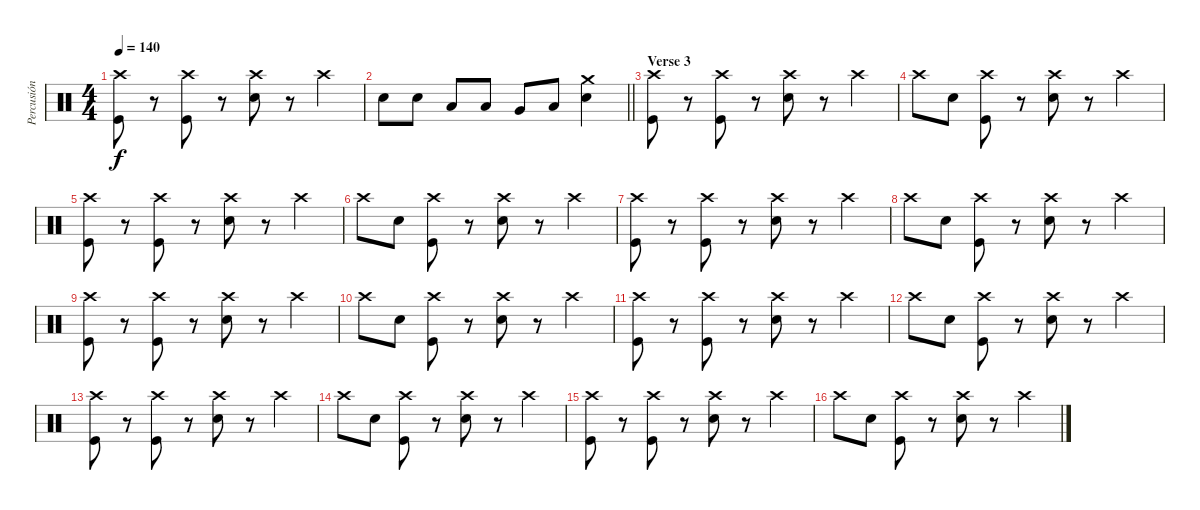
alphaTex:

\track ("Percusión" "Percusión") {instrument percussion}
\staff {score}
\articulation defaults
\ts (4 4)
\tempo 140
\clef neutral
\ks c
("Crash high (hit)" "Kick (hit)").8{dy f} r.8 ("Crash high (hit)" "Kick (hit)").8 r.8 ("Crash high (hit)" "Snare (hit) 2").8 r.8 "Crash high (hit)".4 |
\barLineRight lightlight "Snare (hit) 2".8 "Snare (hit) 2".8 "Low Floor Tom (hit)".8 "Low Floor Tom (hit)".8 "Very Low Tom (hit)".8 "Low Tom (hit)".8
("Crash medium (hit)" "Snare (hit) 2").4 |
\section ("" "Verse 3")
("Crash high (hit)" "Kick (hit)").8 r.8 ("Crash high (hit)" "Kick (hit)").8 r.8 ("Crash high (hit)" "Snare (hit) 2").8 r.8 "Crash high (hit)".4 |
"Crash high (hit)".8 "Snare (hit) 2".8 ("Crash high (hit)" "Kick (hit)").8 r.8 ("Crash high (hit)" "Snare (hit) 2").8 r.8 "Crash high (hit)".4 |
("Crash high (hit)" "Kick (hit)").8 r.8 ("Crash high (hit)" "Kick (hit)").8 r.8 ("Crash high (hit)" "Snare (hit) 2").8 r.8 "Crash high (hit)".4 |
"Crash high (hit)".8 "Snare (hit) 2".8 ("Crash high (hit)" "Kick (hit)").8 r.8 ("Crash high (hit)" "Snare (hit) 2").8 r.8 "Crash high (hit)".4 |
("Crash high (hit)" "Kick (hit)").8 r.8 ("Crash high (hit)" "Kick (hit)").8 r.8 ("Crash high (hit)" "Snare (hit) 2").8 r.8 "Crash high (hit)".4 |
"Crash high (hit)".8 "Snare (hit) 2".8 ("Crash high (hit)" "Kick (hit)").8 r.8 ("Crash high (hit)" "Snare (hit) 2").8 r.8 "Crash high (hit)".4 |
("Crash high (hit)" "Kick (hit)").8 r.8 ("Crash high (hit)" "Kick (hit)").8 r.8 ("Crash high (hit)" "Snare (hit) 2").8 r.8 "Crash high (hit)".4 |
"Crash high (hit)".8 "Snare (hit) 2".8 ("Crash high (hit)" "Kick (hit)").8 r.8 ("Crash high (hit)" "Snare (hit) 2").8 r.8 "Crash high (hit)".4 |
("Crash high (hit)" "Kick (hit)").8 r.8 ("Crash high (hit)" "Kick (hit)").8 r.8 ("Crash high (hit)" "Snare (hit) 2").8 r.8 "Crash high (hit)".4 |
"Crash high (hit)".8 "Snare (hit) 2".8 ("Crash high (hit)" "Kick (hit)").8 r.8 ("Crash high (hit)" "Snare (hit) 2").8 r.8 "Crash high (hit)".4 |
("Crash high (hit)" "Kick (hit)").8 r.8 ("Crash high (hit)" "Kick (hit)").8 r.8 ("Crash high (hit)" "Snare (hit) 2").8 r.8 "Crash high (hit)".4 |
"Crash high (hit)".8 "Snare (hit) 2".8 ("Crash high (hit)" "Kick (hit)").8 r.8 ("Crash high (hit)" "Snare (hit) 2").8 r.8 "Crash high (hit)".4 |
("Crash high (hit)" "Kick (hit)").8 r.8 ("Crash high (hit)" "Kick (hit)").8 r.8 ("Crash high (hit)" "Snare (hit) 2").8 r.8 "Crash high (hit)".4 |
"Crash high (hit)".8 "Snare (hit) 2".8 ("Crash high (hit)" "Kick (hit)").8 r.8 ("Crash high (hit)" "Snare (hit) 2").8 r.8 "Crash high (hit)".4
